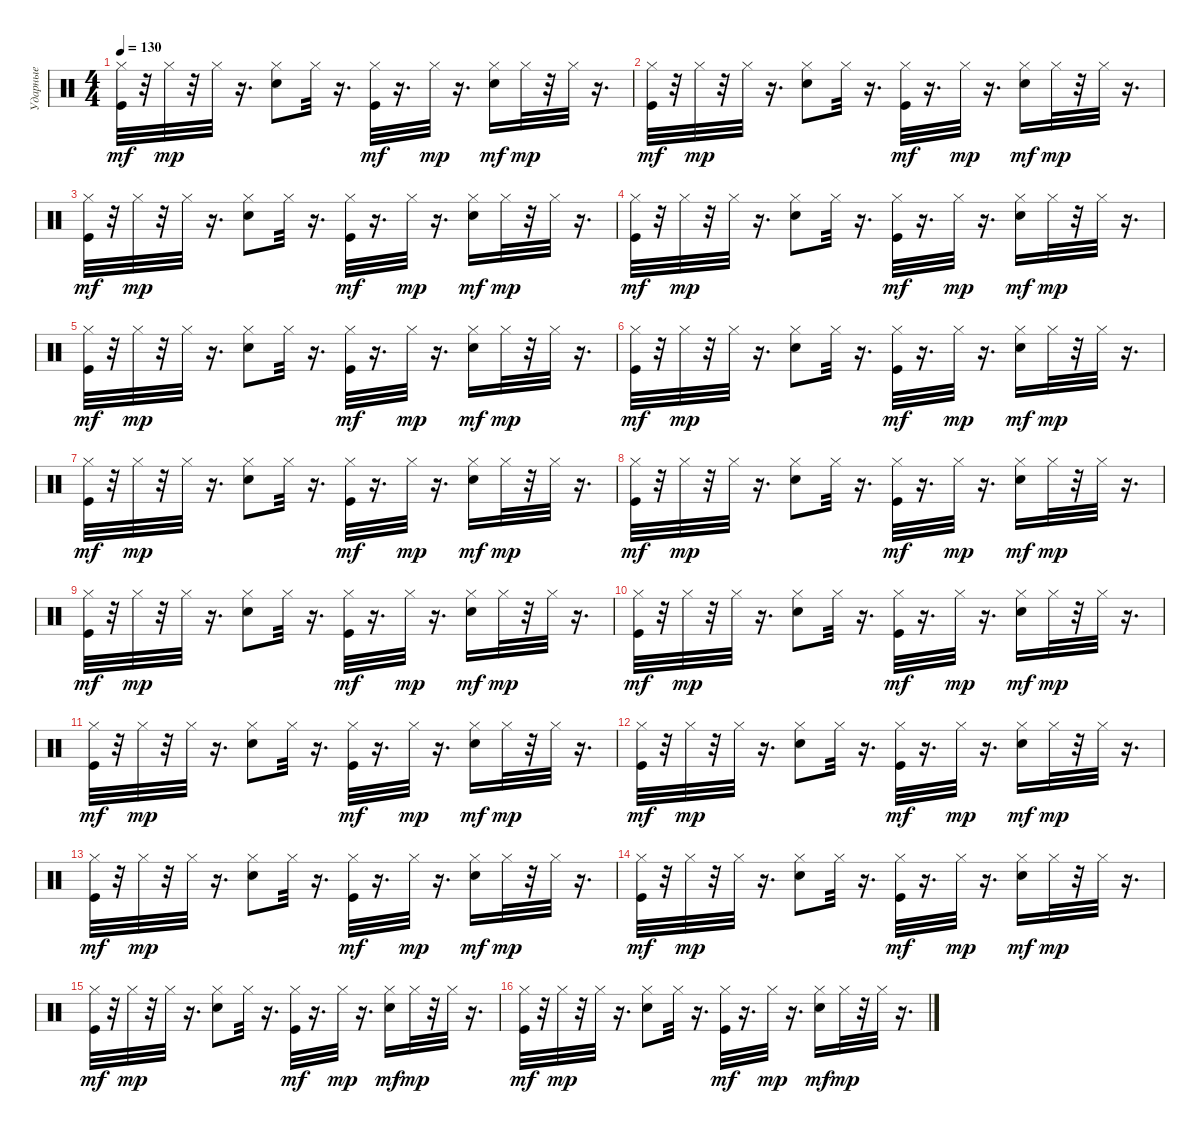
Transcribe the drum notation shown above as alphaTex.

\track ("Ударные" "Ударные") {instrument percussion}
\staff {score}
\articulation defaults
\ts (4 4)
\tempo 130
\clef neutral
\ks c
("Kick (hit)" "Hi-Hat (closed)").32{dy mf} r.32 "Hi-Hat (closed)".32{dy mp} r.32 "Hi-Hat (closed)".32 r.16{d} ("Snare (hit) 2" "Hi-Hat (closed)").8 "Hi-Hat (closed)".32 r.16{d} ("Kick (hit)" "Hi-Hat (closed)").32{dy mf} r.16{d} "Hi-Hat (closed)".32{dy mp} r.16{d} ("Snare (hit) 2" "Hi-Hat (closed)").16{dy mf} "Hi-Hat (closed)".32{dy mp} r.32 "Hi-Hat (closed)".32 r.16{d} |
("Kick (hit)" "Hi-Hat (closed)").32{dy mf} r.32 "Hi-Hat (closed)".32{dy mp} r.32 "Hi-Hat (closed)".32 r.16{d} ("Snare (hit) 2" "Hi-Hat (closed)").8 "Hi-Hat (closed)".32 r.16{d} ("Kick (hit)" "Hi-Hat (closed)").32{dy mf} r.16{d} "Hi-Hat (closed)".32{dy mp} r.16{d} ("Snare (hit) 2" "Hi-Hat (closed)").16{dy mf} "Hi-Hat (closed)".32{dy mp} r.32 "Hi-Hat (closed)".32 r.16{d} |
("Kick (hit)" "Hi-Hat (closed)").32{dy mf} r.32 "Hi-Hat (closed)".32{dy mp} r.32 "Hi-Hat (closed)".32 r.16{d} ("Snare (hit) 2" "Hi-Hat (closed)").8 "Hi-Hat (closed)".32 r.16{d} ("Kick (hit)" "Hi-Hat (closed)").32{dy mf} r.16{d} "Hi-Hat (closed)".32{dy mp} r.16{d} ("Snare (hit) 2" "Hi-Hat (closed)").16{dy mf} "Hi-Hat (closed)".32{dy mp} r.32 "Hi-Hat (closed)".32 r.16{d} |
("Kick (hit)" "Hi-Hat (closed)").32{dy mf} r.32 "Hi-Hat (closed)".32{dy mp} r.32 "Hi-Hat (closed)".32 r.16{d} ("Snare (hit) 2" "Hi-Hat (closed)").8 "Hi-Hat (closed)".32 r.16{d} ("Kick (hit)" "Hi-Hat (closed)").32{dy mf} r.16{d} "Hi-Hat (closed)".32{dy mp} r.16{d} ("Snare (hit) 2" "Hi-Hat (closed)").16{dy mf} "Hi-Hat (closed)".32{dy mp} r.32 "Hi-Hat (closed)".32 r.16{d} |
("Kick (hit)" "Hi-Hat (closed)").32{dy mf} r.32 "Hi-Hat (closed)".32{dy mp} r.32 "Hi-Hat (closed)".32 r.16{d} ("Snare (hit) 2" "Hi-Hat (closed)").8 "Hi-Hat (closed)".32 r.16{d} ("Kick (hit)" "Hi-Hat (closed)").32{dy mf} r.16{d} "Hi-Hat (closed)".32{dy mp} r.16{d} ("Snare (hit) 2" "Hi-Hat (closed)").16{dy mf} "Hi-Hat (closed)".32{dy mp} r.32 "Hi-Hat (closed)".32 r.16{d} |
("Kick (hit)" "Hi-Hat (closed)").32{dy mf} r.32 "Hi-Hat (closed)".32{dy mp} r.32 "Hi-Hat (closed)".32 r.16{d} ("Snare (hit) 2" "Hi-Hat (closed)").8 "Hi-Hat (closed)".32 r.16{d} ("Kick (hit)" "Hi-Hat (closed)").32{dy mf} r.16{d} "Hi-Hat (closed)".32{dy mp} r.16{d} ("Snare (hit) 2" "Hi-Hat (closed)").16{dy mf} "Hi-Hat (closed)".32{dy mp} r.32 "Hi-Hat (closed)".32 r.16{d} |
("Kick (hit)" "Hi-Hat (closed)").32{dy mf} r.32 "Hi-Hat (closed)".32{dy mp} r.32 "Hi-Hat (closed)".32 r.16{d} ("Snare (hit) 2" "Hi-Hat (closed)").8 "Hi-Hat (closed)".32 r.16{d} ("Kick (hit)" "Hi-Hat (closed)").32{dy mf} r.16{d} "Hi-Hat (closed)".32{dy mp} r.16{d} ("Snare (hit) 2" "Hi-Hat (closed)").16{dy mf} "Hi-Hat (closed)".32{dy mp} r.32 "Hi-Hat (closed)".32 r.16{d} |
("Kick (hit)" "Hi-Hat (closed)").32{dy mf} r.32 "Hi-Hat (closed)".32{dy mp} r.32 "Hi-Hat (closed)".32 r.16{d} ("Snare (hit) 2" "Hi-Hat (closed)").8 "Hi-Hat (closed)".32 r.16{d} ("Kick (hit)" "Hi-Hat (closed)").32{dy mf} r.16{d} "Hi-Hat (closed)".32{dy mp} r.16{d} ("Snare (hit) 2" "Hi-Hat (closed)").16{dy mf} "Hi-Hat (closed)".32{dy mp} r.32 "Hi-Hat (closed)".32 r.16{d} |
("Kick (hit)" "Hi-Hat (closed)").32{dy mf} r.32 "Hi-Hat (closed)".32{dy mp} r.32 "Hi-Hat (closed)".32 r.16{d} ("Snare (hit) 2" "Hi-Hat (closed)").8 "Hi-Hat (closed)".32 r.16{d} ("Kick (hit)" "Hi-Hat (closed)").32{dy mf} r.16{d} "Hi-Hat (closed)".32{dy mp} r.16{d} ("Snare (hit) 2" "Hi-Hat (closed)").16{dy mf} "Hi-Hat (closed)".32{dy mp} r.32 "Hi-Hat (closed)".32 r.16{d} |
("Kick (hit)" "Hi-Hat (closed)").32{dy mf} r.32 "Hi-Hat (closed)".32{dy mp} r.32 "Hi-Hat (closed)".32 r.16{d} ("Snare (hit) 2" "Hi-Hat (closed)").8 "Hi-Hat (closed)".32 r.16{d} ("Kick (hit)" "Hi-Hat (closed)").32{dy mf} r.16{d} "Hi-Hat (closed)".32{dy mp} r.16{d} ("Snare (hit) 2" "Hi-Hat (closed)").16{dy mf} "Hi-Hat (closed)".32{dy mp} r.32 "Hi-Hat (closed)".32 r.16{d} |
("Kick (hit)" "Hi-Hat (closed)").32{dy mf} r.32 "Hi-Hat (closed)".32{dy mp} r.32 "Hi-Hat (closed)".32 r.16{d} ("Snare (hit) 2" "Hi-Hat (closed)").8 "Hi-Hat (closed)".32 r.16{d} ("Kick (hit)" "Hi-Hat (closed)").32{dy mf} r.16{d} "Hi-Hat (closed)".32{dy mp} r.16{d} ("Snare (hit) 2" "Hi-Hat (closed)").16{dy mf} "Hi-Hat (closed)".32{dy mp} r.32 "Hi-Hat (closed)".32 r.16{d} |
("Kick (hit)" "Hi-Hat (closed)").32{dy mf} r.32 "Hi-Hat (closed)".32{dy mp} r.32 "Hi-Hat (closed)".32 r.16{d} ("Snare (hit) 2" "Hi-Hat (closed)").8 "Hi-Hat (closed)".32 r.16{d} ("Kick (hit)" "Hi-Hat (closed)").32{dy mf} r.16{d} "Hi-Hat (closed)".32{dy mp} r.16{d} ("Snare (hit) 2" "Hi-Hat (closed)").16{dy mf} "Hi-Hat (closed)".32{dy mp} r.32 "Hi-Hat (closed)".32 r.16{d} |
("Kick (hit)" "Hi-Hat (closed)").32{dy mf} r.32 "Hi-Hat (closed)".32{dy mp} r.32 "Hi-Hat (closed)".32 r.16{d} ("Snare (hit) 2" "Hi-Hat (closed)").8 "Hi-Hat (closed)".32 r.16{d} ("Kick (hit)" "Hi-Hat (closed)").32{dy mf} r.16{d} "Hi-Hat (closed)".32{dy mp} r.16{d} ("Snare (hit) 2" "Hi-Hat (closed)").16{dy mf} "Hi-Hat (closed)".32{dy mp} r.32 "Hi-Hat (closed)".32 r.16{d} |
("Kick (hit)" "Hi-Hat (closed)").32{dy mf} r.32 "Hi-Hat (closed)".32{dy mp} r.32 "Hi-Hat (closed)".32 r.16{d} ("Snare (hit) 2" "Hi-Hat (closed)").8 "Hi-Hat (closed)".32 r.16{d} ("Kick (hit)" "Hi-Hat (closed)").32{dy mf} r.16{d} "Hi-Hat (closed)".32{dy mp} r.16{d} ("Snare (hit) 2" "Hi-Hat (closed)").16{dy mf} "Hi-Hat (closed)".32{dy mp} r.32 "Hi-Hat (closed)".32 r.16{d} |
("Kick (hit)" "Hi-Hat (closed)").32{dy mf} r.32 "Hi-Hat (closed)".32{dy mp} r.32 "Hi-Hat (closed)".32 r.16{d} ("Snare (hit) 2" "Hi-Hat (closed)").8 "Hi-Hat (closed)".32 r.16{d} ("Kick (hit)" "Hi-Hat (closed)").32{dy mf} r.16{d} "Hi-Hat (closed)".32{dy mp} r.16{d} ("Snare (hit) 2" "Hi-Hat (closed)").16{dy mf} "Hi-Hat (closed)".32{dy mp} r.32 "Hi-Hat (closed)".32 r.16{d} |
("Kick (hit)" "Hi-Hat (closed)").32{dy mf} r.32 "Hi-Hat (closed)".32{dy mp} r.32 "Hi-Hat (closed)".32 r.16{d} ("Snare (hit) 2" "Hi-Hat (closed)").8 "Hi-Hat (closed)".32 r.16{d} ("Kick (hit)" "Hi-Hat (closed)").32{dy mf} r.16{d} "Hi-Hat (closed)".32{dy mp} r.16{d} ("Snare (hit) 2" "Hi-Hat (closed)").16{dy mf} "Hi-Hat (closed)".32{dy mp} r.32 "Hi-Hat (closed)".32 r.16{d}
